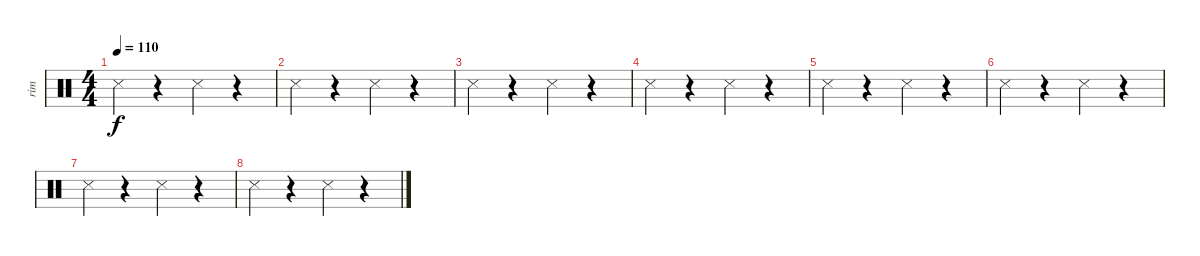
\track ("rim     " "rim     ") {instrument percussion}
\staff {score}
\articulation defaults
\ts (4 4)
\tempo 110
\clef neutral
\ks c "Snare (side stick) 3".4{dy f}
r.4 "Snare (side stick) 3".4 r.4 |
"Snare (side stick) 3".4 r.4 "Snare (side stick) 3".4 r.4 |
"Snare (side stick) 3".4 r.4 "Snare (side stick) 3".4 r.4 |
"Snare (side stick) 3".4 r.4 "Snare (side stick) 3".4 r.4 |
"Snare (side stick) 3".4 r.4 "Snare (side stick) 3".4 r.4 |
"Snare (side stick) 3".4 r.4 "Snare (side stick) 3".4 r.4 |
"Snare (side stick) 3".4 r.4 "Snare (side stick) 3".4 r.4 |
"Snare (side stick) 3".4 r.4 "Snare (side stick) 3".4 r.4
